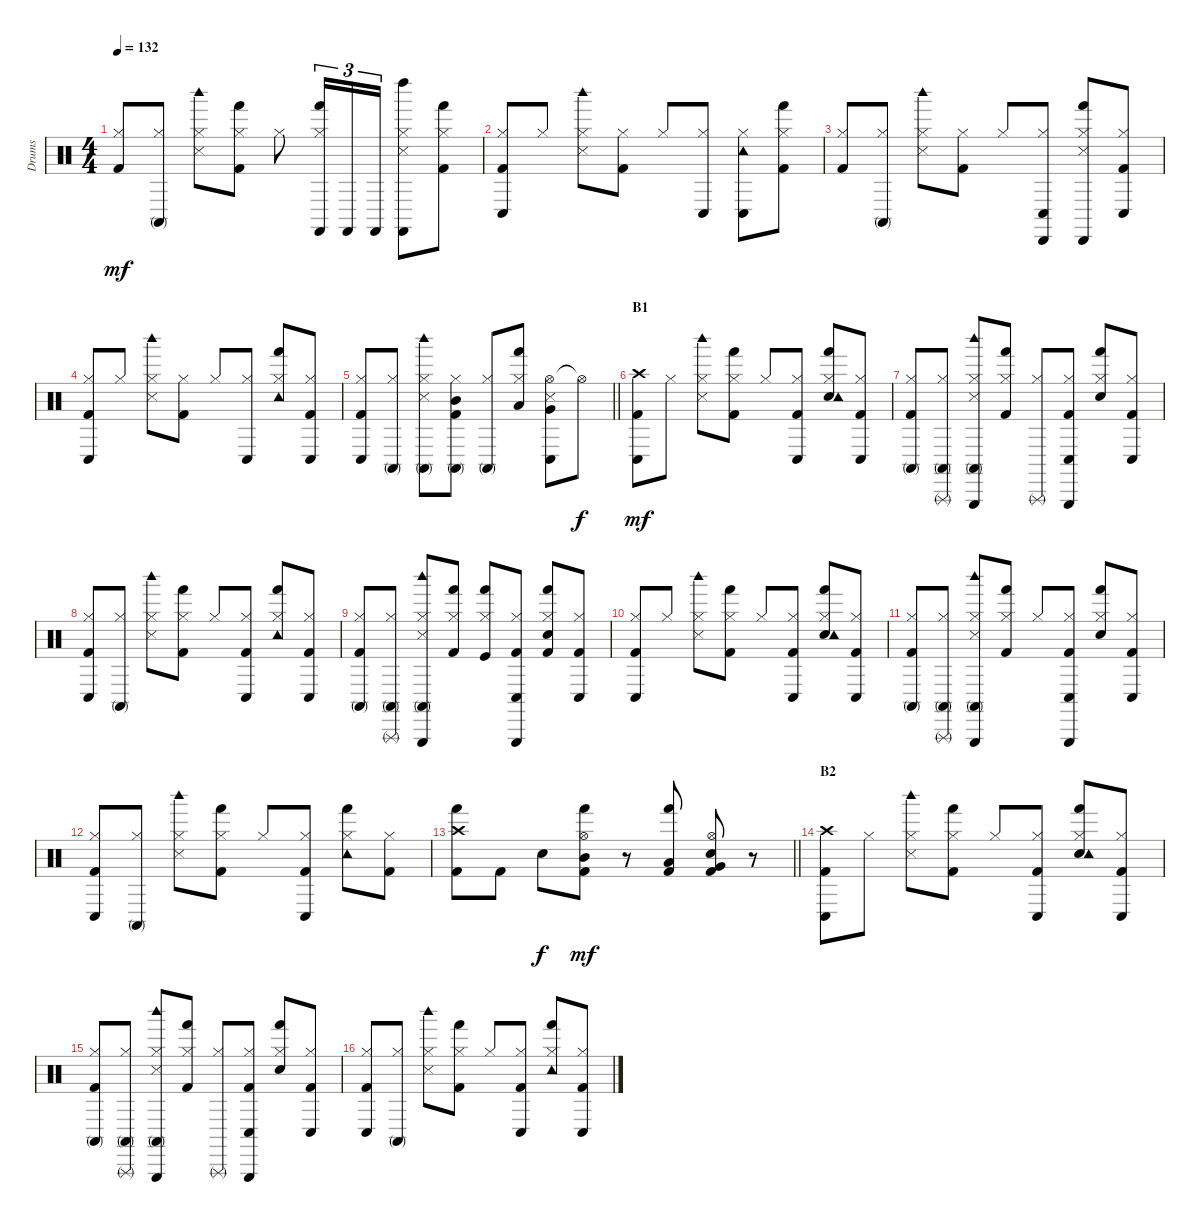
\track ("Drums" "Drums") {instrument percussion}
\staff {score}
\articulation defaults
\ts (4 4)
\tempo 132
\clef neutral
\ks c
("Hi-Hat (closed)" "Kick (hit) 2").8{dy mf} ("Hi-Hat (closed)" "Conga high (mute)").8 ("Hi-Hat (closed)" "Snare (side stick) 3" "Woodblock high (hit)").8 ("Hi-Hat (closed)" "Kick (hit) 2" "Hand (hit)").8 "Hi-Hat (closed)".8 ("Hi-Hat (closed)" "Castanets (hit)" "Hand (hit)").16{tu (3 2)} "Castanets (hit)".16{tu (3 2)} "Castanets (hit)".16{tu (3 2)} ("Hi-Hat (closed)" "Snare (side stick) 3" "Castanets (hit)" "Left Maraca (hit)").8 ("Hi-Hat (closed)" "Kick (hit) 2" "Hand (hit)").8 |
("Hi-Hat (closed)" "Kick (hit) 2" "Conga low (hit)").8 "Hi-Hat (closed)".8 ("Hi-Hat (closed)" "Snare (side stick) 3" "Woodblock high (hit)").8 ("Hi-Hat (closed)" "Kick (hit) 2").8 "Hi-Hat (closed)".8 ("Hi-Hat (closed)" "Conga low (hit)").8 ("Hi-Hat (closed)" "Tambourine (hit)" "Conga low (hit)").8 ("Hi-Hat (closed)" "Kick (hit) 2" "Hand (hit)").8 |
("Hi-Hat (closed)" "Kick (hit) 2").8 ("Hi-Hat (closed)" "Conga high (mute)").8 ("Hi-Hat (closed)" "Snare (side stick) 3" "Woodblock high (hit)").8 ("Hi-Hat (closed)" "Kick (hit) 2").8 "Hi-Hat (closed)".8 ("Hi-Hat (closed)" "Cabasa (hit)" "Conga low (hit)").8 ("Hi-Hat (closed)" "Snare (side stick) 3" "Cabasa (hit)" "Hand (hit)").8 ("Hi-Hat (closed)" "Kick (hit) 2" "Conga low (hit)").8 |
("Hi-Hat (closed)" "Kick (hit) 2" "Conga low (hit)").8 "Hi-Hat (closed)".8 ("Hi-Hat (closed)" "Snare (side stick) 3" "Woodblock high (hit)").8 ("Hi-Hat (closed)" "Kick (hit) 2").8 "Hi-Hat (closed)".8 ("Hi-Hat (closed)" "Conga low (hit)").8 ("Hi-Hat (closed)" "Tambourine (hit)" "Hand (hit)").8 ("Hi-Hat (closed)" "Kick (hit) 2" "Conga low (hit)").8 |
\barLineRight lightlight
("Hi-Hat (closed)" "Kick (hit) 2" "Conga low (hit)").8 ("Hi-Hat (closed)" "Conga high (mute)").8 ("Hi-Hat (closed)" "Snare (side stick) 3" "Woodblock high (hit)" "Conga high (mute)").8 ("Hi-Hat (closed)" "Kick (hit) 2" "Mid Tom (hit)" "Conga high (mute)").8 ("Hi-Hat (closed)" "Conga high (mute)").8 ("Hi-Hat (closed)" "Low Tom (hit)" "Hand (hit)").8 ("Hi-Hat (open)" "Snare (side stick) 3" "Very Low Tom (hit)" "Conga low (hit)").8 "Hi-Hat (open)"{t}.8{dy f} |
\section ("" "B1")
("Crash high (hit)" "Kick (hit) 2" "Conga low (hit)").8{dy mf} "Hi-Hat (closed)".8 ("Hi-Hat (closed)" "Snare (side stick) 3" "Woodblock high (hit)").8 ("Hi-Hat (closed)" "Kick (hit) 2" "Hand (hit)").8 "Hi-Hat (closed)".8 ("Hi-Hat (closed)" "Kick (hit) 2" "Conga low (hit)").8 ("Hi-Hat (closed)" "Electric Snare (hit)" "Tambourine (hit)" "Hand (hit)").8 ("Hi-Hat (closed)" "Kick (hit) 2" "Conga low (hit)").8 |
("Hi-Hat (closed)" "Kick (hit) 2" "Conga high (mute)").8 ("Hi-Hat (closed)" "Triangle (rnute)" "Conga high (mute)").8 ("Hi-Hat (closed)" "Snare (side stick) 3" "Woodblock high (hit)" "Triangle (hit)" "Conga high (mute)").8 ("Hi-Hat (closed)" "Kick (hit) 2" "Hand (hit)").8 ("Hi-Hat (closed)" "Triangle (rnute)").8 ("Hi-Hat (closed)" "Kick (hit) 2" "Triangle (hit)" "Conga low (hit)").8 ("Hi-Hat (closed)" "Electric Snare (hit)" "Hand (hit)").8 ("Hi-Hat (closed)" "Kick (hit) 2" "Conga low (hit)").8 |
("Hi-Hat (closed)" "Kick (hit) 2" "Conga low (hit)").8 ("Hi-Hat (closed)" "Conga high (mute)").8 ("Hi-Hat (closed)" "Snare (side stick) 3" "Woodblock high (hit)").8 ("Hi-Hat (closed)" "Kick (hit) 2" "Hand (hit)").8 "Hi-Hat (closed)".8 ("Hi-Hat (closed)" "Kick (hit) 2" "Conga low (hit)").8 ("Hi-Hat (closed)" "Tambourine (hit)" "Hand (hit)").8 ("Hi-Hat (closed)" "Kick (hit) 2" "Conga low (hit)").8 |
("Hi-Hat (closed)" "Kick (hit) 2" "Conga high (mute)").8 ("Hi-Hat (closed)" "Triangle (rnute)" "Conga high (mute)").8 ("Hi-Hat (closed)" "Snare (side stick) 3" "Woodblock high (hit)" "Triangle (hit)" "Conga high (mute)").8 ("Hi-Hat (closed)" "Kick (hit) 2" "Hand (hit)").8 ("Hi-Hat (closed)" "Kick (hit)" "Hand (hit)").8 ("Hi-Hat (closed)" "Kick (hit) 2" "Triangle (hit)" "Conga low (hit)").8 ("Hi-Hat (closed)" "Electric Snare (hit)" "Kick (hit) 2" "Hand (hit)").8 ("Hi-Hat (closed)" "Kick (hit) 2" "Conga low (hit)").8 |
("Hi-Hat (closed)" "Kick (hit) 2" "Conga low (hit)").8 "Hi-Hat (closed)".8 ("Hi-Hat (closed)" "Snare (side stick) 3" "Woodblock high (hit)").8 ("Hi-Hat (closed)" "Kick (hit) 2" "Hand (hit)").8 "Hi-Hat (closed)".8 ("Hi-Hat (closed)" "Kick (hit) 2" "Conga low (hit)").8 ("Hi-Hat (closed)" "Electric Snare (hit)" "Tambourine (hit)" "Hand (hit)").8 ("Hi-Hat (closed)" "Kick (hit) 2" "Conga low (hit)").8 |
("Hi-Hat (closed)" "Kick (hit) 2" "Conga high (mute)").8 ("Hi-Hat (closed)" "Triangle (rnute)" "Conga high (mute)").8 ("Hi-Hat (closed)" "Snare (side stick) 3" "Woodblock high (hit)" "Triangle (hit)" "Conga high (mute)").8 ("Hi-Hat (closed)" "Kick (hit) 2" "Hand (hit)").8 "Hi-Hat (closed)".8 ("Hi-Hat (closed)" "Kick (hit) 2" "Triangle (hit)" "Conga low (hit)").8 ("Hi-Hat (closed)" "Electric Snare (hit)" "Hand (hit)").8 ("Hi-Hat (closed)" "Kick (hit) 2" "Conga low (hit)").8 |
("Hi-Hat (closed)" "Kick (hit) 2" "Conga low (hit)").8 ("Hi-Hat (closed)" "Conga high (mute)").8 ("Hi-Hat (closed)" "Snare (side stick) 3" "Woodblock high (hit)").8 ("Hi-Hat (closed)" "Kick (hit) 2" "Hand (hit)").8 "Hi-Hat (closed)".8 ("Hi-Hat (closed)" "Kick (hit) 2" "Conga low (hit)").8 ("Hi-Hat (closed)" "Tambourine (hit)" "Hand (hit)").8 ("Hi-Hat (closed)" "Kick (hit) 2").8 |
\barLineRight lightlight
("Crash high (hit)" "Kick (hit) 2" "Hand (hit)").8 "Kick (hit) 2".8 "Electric Snare (hit)".8{dy f} ("Hi-Hat (open)" "Kick (hit) 2" "Mid Tom (hit)" "Hand (hit)").8{dy mf} r.8 ("Kick (hit) 2" "Low Tom (hit)" "Hand (hit)").8 ("Hi-Hat (open)" "Electric Snare (hit)" "Kick (hit) 2" "Very Low Tom (hit)").8 r.8 |
\section ("" "B2")
("Crash high (hit)" "Kick (hit) 2" "Conga low (hit)").8 "Hi-Hat (closed)".8 ("Hi-Hat (closed)" "Snare (side stick) 3" "Woodblock high (hit)").8 ("Hi-Hat (closed)" "Kick (hit) 2" "Hand (hit)").8 "Hi-Hat (closed)".8 ("Hi-Hat (closed)" "Kick (hit) 2" "Conga low (hit)").8 ("Hi-Hat (closed)" "Electric Snare (hit)" "Tambourine (hit)" "Hand (hit)").8 ("Hi-Hat (closed)" "Kick (hit) 2" "Conga low (hit)").8 |
("Hi-Hat (closed)" "Kick (hit) 2" "Conga high (mute)").8 ("Hi-Hat (closed)" "Triangle (rnute)" "Conga high (mute)").8 ("Hi-Hat (closed)" "Snare (side stick) 3" "Woodblock high (hit)" "Triangle (hit)" "Conga high (mute)").8 ("Hi-Hat (closed)" "Kick (hit) 2" "Hand (hit)").8 ("Hi-Hat (closed)" "Triangle (rnute)").8 ("Hi-Hat (closed)" "Kick (hit) 2" "Triangle (hit)" "Conga low (hit)").8 ("Hi-Hat (closed)" "Electric Snare (hit)" "Hand (hit)").8 ("Hi-Hat (closed)" "Kick (hit) 2" "Conga low (hit)").8 |
("Hi-Hat (closed)" "Kick (hit) 2" "Conga low (hit)").8 ("Hi-Hat (closed)" "Conga high (mute)").8 ("Hi-Hat (closed)" "Snare (side stick) 3" "Woodblock high (hit)").8 ("Hi-Hat (closed)" "Kick (hit) 2" "Hand (hit)").8 "Hi-Hat (closed)".8 ("Hi-Hat (closed)" "Kick (hit) 2" "Conga low (hit)").8 ("Hi-Hat (closed)" "Tambourine (hit)" "Hand (hit)").8 ("Hi-Hat (closed)" "Kick (hit) 2" "Conga low (hit)").8
